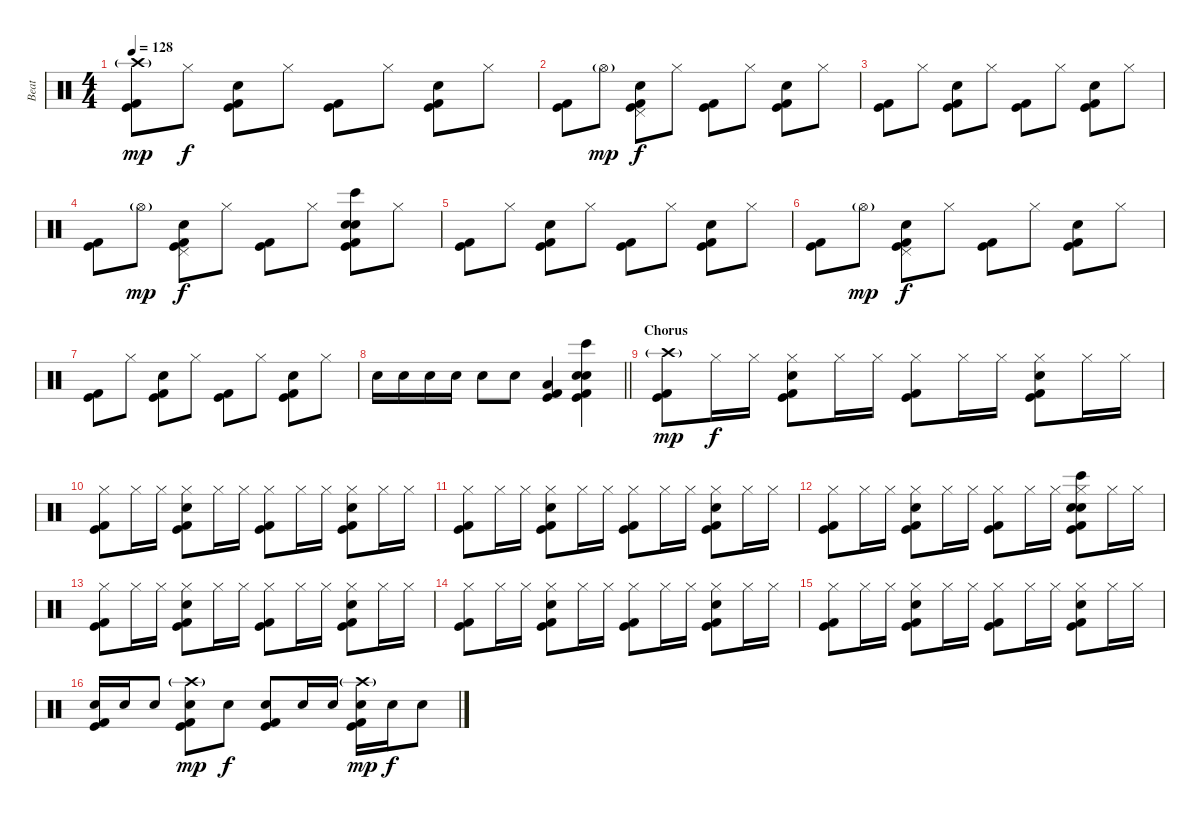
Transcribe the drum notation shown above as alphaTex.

\track ("Beat" "Beat") {instrument percussion}
\staff {score}
\articulation defaults
\ts (4 4)
\tempo 128
\clef neutral
\ks c
("Crash high (hit)"{g} "Kick (hit) 2" "Kick (hit)").8{dy mp} "Hi-Hat (closed)".8{dy f} ("Hand Clap (hit)" "Kick (hit) 2" "Kick (hit)").8 "Hi-Hat (closed)".8 ("Kick (hit) 2" "Kick (hit)").8 "Hi-Hat (closed)".8 ("Hand Clap (hit)" "Kick (hit) 2" "Kick (hit)").8 "Hi-Hat (closed)".8 |
("Kick (hit) 2" "Kick (hit)").8 "Hi-Hat (open)"{g}.8{dy mp} ("Pedal Hi-Hat (hit)" "Hand Clap (hit)" "Kick (hit) 2" "Kick (hit)").8{dy f} "Hi-Hat (closed)".8 ("Kick (hit) 2" "Kick (hit)").8 "Hi-Hat (closed)".8 ("Hand Clap (hit)" "Kick (hit) 2" "Kick (hit)").8 "Hi-Hat (closed)".8 |
("Kick (hit) 2" "Kick (hit)").8 "Hi-Hat (closed)".8 ("Hand Clap (hit)" "Kick (hit) 2" "Kick (hit)").8 "Hi-Hat (closed)".8 ("Kick (hit) 2" "Kick (hit)").8 "Hi-Hat (closed)".8 ("Hand Clap (hit)" "Kick (hit) 2" "Kick (hit)").8 "Hi-Hat (closed)".8 |
("Kick (hit) 2" "Kick (hit)").8 "Hi-Hat (open)"{g}.8{dy mp} ("Pedal Hi-Hat (hit)" "Hand Clap (hit)" "Kick (hit) 2" "Kick (hit)").8{dy f} "Hi-Hat (closed)".8 ("Kick (hit) 2" "Kick (hit)").8 "Hi-Hat (closed)".8 ("Hand Clap (hit)" "Snare (hit) 2" "Bongo High (hit)" "Kick (hit) 2" "Kick (hit)").8 "Hi-Hat (closed)".8 |
("Kick (hit) 2" "Kick (hit)").8 "Hi-Hat (closed)".8 ("Hand Clap (hit)" "Kick (hit) 2" "Kick (hit)").8 "Hi-Hat (closed)".8 ("Kick (hit) 2" "Kick (hit)").8 "Hi-Hat (closed)".8 ("Hand Clap (hit)" "Kick (hit) 2" "Kick (hit)").8 "Hi-Hat (closed)".8 |
("Kick (hit) 2" "Kick (hit)").8 "Hi-Hat (open)"{g}.8{dy mp} ("Pedal Hi-Hat (hit)" "Hand Clap (hit)" "Kick (hit) 2" "Kick (hit)").8{dy f} "Hi-Hat (closed)".8 ("Kick (hit) 2" "Kick (hit)").8 "Hi-Hat (closed)".8 ("Hand Clap (hit)" "Kick (hit) 2" "Kick (hit)").8 "Hi-Hat (closed)".8 |
("Kick (hit) 2" "Kick (hit)").8 "Hi-Hat (closed)".8 ("Hand Clap (hit)" "Kick (hit) 2" "Kick (hit)").8 "Hi-Hat (closed)".8 ("Kick (hit) 2" "Kick (hit)").8 "Hi-Hat (closed)".8 ("Hand Clap (hit)" "Kick (hit) 2" "Kick (hit)").8 "Hi-Hat (closed)".8 |
\barLineRight lightlight "Electric Snare (hit)".16 "Electric Snare (hit)".16 "Electric Snare (hit)".16 "Electric Snare (hit)".16 "Electric Snare (hit)".8 "Electric Snare (hit)".8
("Low Tom (hit)" "Kick (hit)" "Kick (hit) 2").4 ("Hand Clap (hit)" "Snare (hit) 2" "Bongo High (hit)" "Kick (hit) 2" "Kick (hit)").4 |
\section ("" "Chorus")
("Crash high (hit)"{g} "Kick (hit) 2" "Kick (hit)").8{dy mp} "Hi-Hat (closed)".16{dy f} "Hi-Hat (closed)".16 ("Hi-Hat (closed)" "Hand Clap (hit)" "Kick (hit) 2" "Kick (hit)").8 "Hi-Hat (closed)".16 "Hi-Hat (closed)".16 ("Hi-Hat (closed)" "Kick (hit) 2" "Kick (hit)").8 "Hi-Hat (closed)".16 "Hi-Hat (closed)".16 ("Hi-Hat (closed)" "Hand Clap (hit)" "Kick (hit) 2" "Kick (hit)").8 "Hi-Hat (closed)".16 "Hi-Hat (closed)".16 |
("Hi-Hat (closed)" "Kick (hit) 2" "Kick (hit)").8 "Hi-Hat (closed)".16 "Hi-Hat (closed)".16 ("Hi-Hat (closed)" "Hand Clap (hit)" "Kick (hit) 2" "Kick (hit)").8 "Hi-Hat (closed)".16 "Hi-Hat (closed)".16 ("Hi-Hat (closed)" "Kick (hit) 2" "Kick (hit)").8 "Hi-Hat (closed)".16 "Hi-Hat (closed)".16 ("Hi-Hat (closed)" "Hand Clap (hit)" "Kick (hit) 2" "Kick (hit)").8 "Hi-Hat (closed)".16 "Hi-Hat (closed)".16 |
("Hi-Hat (closed)" "Kick (hit) 2" "Kick (hit)").8 "Hi-Hat (closed)".16 "Hi-Hat (closed)".16 ("Hi-Hat (closed)" "Hand Clap (hit)" "Kick (hit) 2" "Kick (hit)").8 "Hi-Hat (closed)".16 "Hi-Hat (closed)".16 ("Hi-Hat (closed)" "Kick (hit) 2" "Kick (hit)").8 "Hi-Hat (closed)".16 "Hi-Hat (closed)".16 ("Hi-Hat (closed)" "Hand Clap (hit)" "Kick (hit) 2" "Kick (hit)").8 "Hi-Hat (closed)".16 "Hi-Hat (closed)".16 |
("Hi-Hat (closed)" "Kick (hit) 2" "Kick (hit)").8 "Hi-Hat (closed)".16 "Hi-Hat (closed)".16 ("Hi-Hat (closed)" "Hand Clap (hit)" "Kick (hit) 2" "Kick (hit)").8 "Hi-Hat (closed)".16 "Hi-Hat (closed)".16 ("Hi-Hat (closed)" "Kick (hit) 2" "Kick (hit)").8 "Hi-Hat (closed)".16 "Hi-Hat (closed)".16 ("Bongo High (hit)" "Hi-Hat (closed)" "Hand Clap (hit)" "Snare (hit) 2" "Kick (hit) 2" "Kick (hit)").8 "Hi-Hat (closed)".16 "Hi-Hat (closed)".16 |
("Hi-Hat (closed)" "Kick (hit) 2" "Kick (hit)").8 "Hi-Hat (closed)".16 "Hi-Hat (closed)".16 ("Hi-Hat (closed)" "Hand Clap (hit)" "Kick (hit) 2" "Kick (hit)").8 "Hi-Hat (closed)".16 "Hi-Hat (closed)".16 ("Hi-Hat (closed)" "Kick (hit) 2" "Kick (hit)").8 "Hi-Hat (closed)".16 "Hi-Hat (closed)".16 ("Hi-Hat (closed)" "Hand Clap (hit)" "Kick (hit) 2" "Kick (hit)").8 "Hi-Hat (closed)".16 "Hi-Hat (closed)".16 |
("Hi-Hat (closed)" "Kick (hit) 2" "Kick (hit)").8 "Hi-Hat (closed)".16 "Hi-Hat (closed)".16 ("Hi-Hat (closed)" "Hand Clap (hit)" "Kick (hit) 2" "Kick (hit)").8 "Hi-Hat (closed)".16 "Hi-Hat (closed)".16 ("Hi-Hat (closed)" "Kick (hit) 2" "Kick (hit)").8 "Hi-Hat (closed)".16 "Hi-Hat (closed)".16 ("Hi-Hat (closed)" "Hand Clap (hit)" "Kick (hit) 2" "Kick (hit)").8 "Hi-Hat (closed)".16 "Hi-Hat (closed)".16 |
("Hi-Hat (closed)" "Kick (hit) 2" "Kick (hit)").8 "Hi-Hat (closed)".16 "Hi-Hat (closed)".16 ("Hi-Hat (closed)" "Hand Clap (hit)" "Kick (hit) 2" "Kick (hit)").8 "Hi-Hat (closed)".16 "Hi-Hat (closed)".16 ("Hi-Hat (closed)" "Kick (hit) 2" "Kick (hit)").8 "Hi-Hat (closed)".16 "Hi-Hat (closed)".16 ("Hi-Hat (closed)" "Hand Clap (hit)" "Kick (hit) 2" "Kick (hit)").8 "Hi-Hat (closed)".16 "Hi-Hat (closed)".16 |
("Electric Snare (hit)" "Kick (hit) 2" "Kick (hit)").16 "Electric Snare (hit)".16 "Electric Snare (hit)".8 ("Crash high (hit)"{g} "Electric Snare (hit)" "Kick (hit) 2" "Kick (hit)").8{dy mp} "Electric Snare (hit)".8{dy f} ("Snare (hit) 2" "Kick (hit) 2" "Kick (hit)").8 "Electric Snare (hit)".16 "Electric Snare (hit)".16 ("Crash high (hit)"{g} "Electric Snare (hit)" "Kick (hit) 2" "Kick (hit)").16{dy mp} "Snare (hit) 2".16{dy f} "Snare (hit) 2".8
